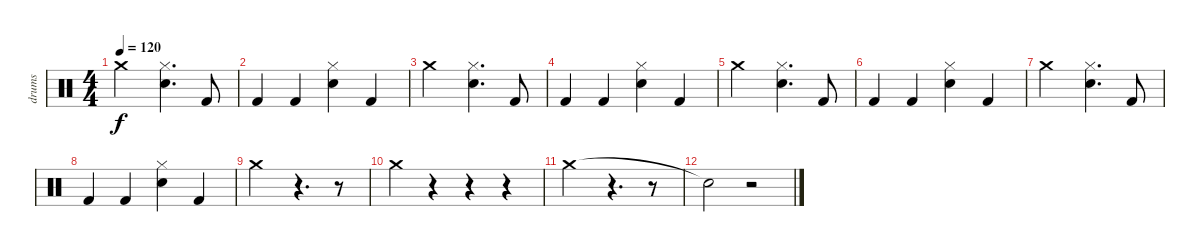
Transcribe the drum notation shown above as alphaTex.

\track ("drums" "drums") {instrument percussion}
\staff {score}
\articulation defaults
\ts (4 4)
\tempo 120
\clef neutral
\ks c "Crash medium (hit)".2{dy f}
("Snare (hit) 2" "Hi-Hat (closed)").4{d} "Kick (hit) 2".8 |
"Kick (hit) 2".4 "Kick (hit) 2".4 ("Snare (hit) 2" "Hi-Hat (closed)").4 "Kick (hit) 2".4 |
"Crash medium (hit)".2 ("Snare (hit) 2" "Hi-Hat (closed)").4{d} "Kick (hit) 2".8 |
"Kick (hit) 2".4 "Kick (hit) 2".4 ("Snare (hit) 2" "Hi-Hat (closed)").4 "Kick (hit) 2".4 |
"Crash medium (hit)".2 ("Snare (hit) 2" "Hi-Hat (closed)").4{d} "Kick (hit) 2".8 |
"Kick (hit) 2".4 "Kick (hit) 2".4 ("Snare (hit) 2" "Hi-Hat (closed)").4 "Kick (hit) 2".4 |
"Crash medium (hit)".2 ("Snare (hit) 2" "Hi-Hat (closed)").4{d} "Kick (hit) 2".8 |
"Kick (hit) 2".4 "Kick (hit) 2".4 ("Snare (hit) 2" "Hi-Hat (closed)").4 "Kick (hit) 2".4 |
"Crash medium (hit)".2 r.4{d} r.8 |
"Crash medium (hit)".4 r.4 r.4 r.4 |
"Crash medium (hit)".2 r.4{d} r.8 |
"Snare (hit)"{t}.2 r.2
